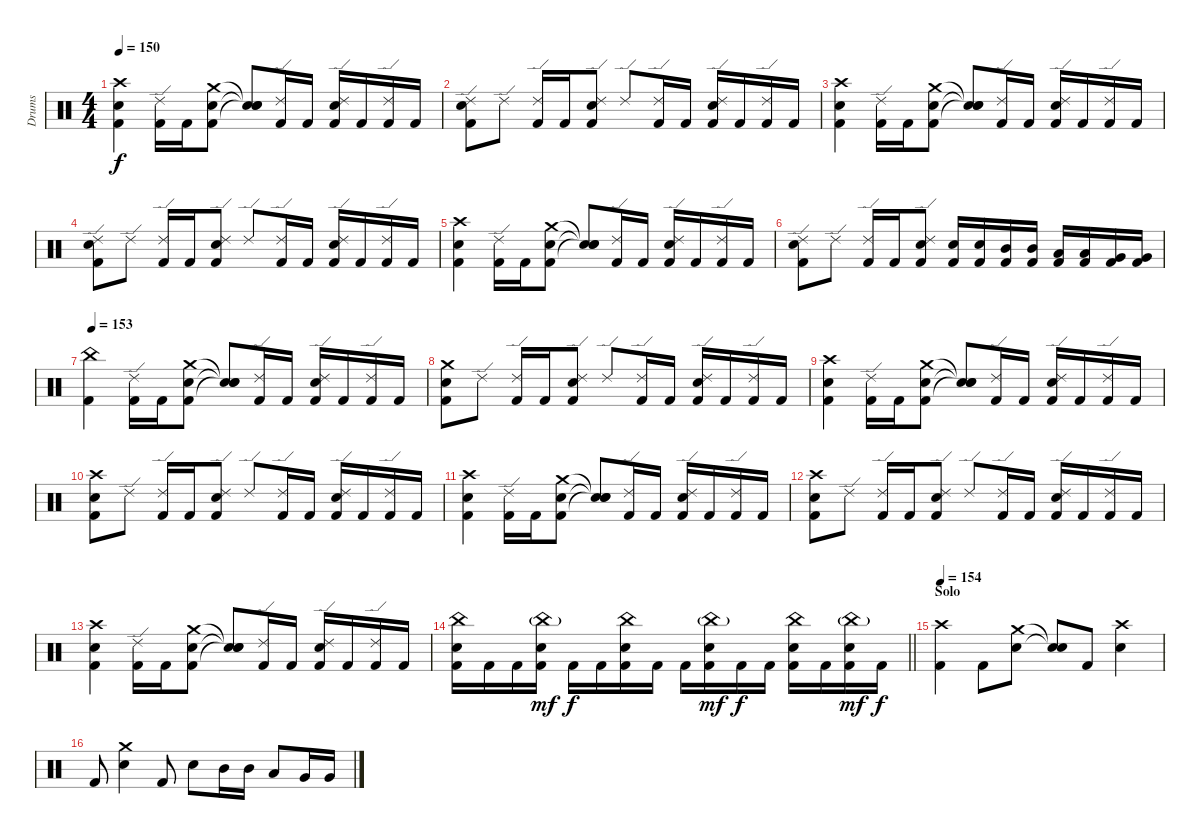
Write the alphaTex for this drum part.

\track ("Drums" "Drums") {instrument percussion}
\staff {score}
\articulation defaults
\ts (4 4)
\tempo 150
\clef neutral
\ks c
("Crash high (hit)" "Snare (hit) 2" "Kick (hit) 2").4{dy f} ("Ride (edge) 2" "Kick (hit) 2").16 "Kick (hit) 2".16 ("Crash medium (hit)" "Snare (hit) 2" "Kick (hit) 2").8 ("Snare (hit)"{t} "Snare (hit)"{t} "Snare (hit)"{t}).8 ("Ride (edge) 2" "Kick (hit) 2").16 "Kick (hit) 2".16 ("Ride (edge) 2" "Snare (hit) 2" "Kick (hit) 2").16 "Kick (hit) 2".16 ("Ride (edge) 2" "Kick (hit) 2").16 "Kick (hit) 2".16 |
("Ride (edge) 2" "Snare (hit) 2" "Kick (hit) 2").8 "Ride (edge) 2".8 ("Ride (edge) 2" "Kick (hit) 2").16 "Kick (hit) 2".16 ("Ride (edge) 2" "Snare (hit) 2" "Kick (hit) 2").8 "Ride (edge) 2".8 ("Ride (edge) 2" "Kick (hit) 2").16 "Kick (hit) 2".16 ("Ride (edge) 2" "Snare (hit) 2" "Kick (hit) 2").16 "Kick (hit) 2".16 ("Ride (edge) 2" "Kick (hit) 2").16 "Kick (hit) 2".16 |
("Crash high (hit)" "Snare (hit) 2" "Kick (hit) 2").4 ("Ride (edge) 2" "Kick (hit) 2").16 "Kick (hit) 2".16 ("Crash medium (hit)" "Snare (hit) 2" "Kick (hit) 2").8 ("Snare (hit)"{t} "Snare (hit)"{t} "Snare (hit)"{t}).8 ("Ride (edge) 2" "Kick (hit) 2").16 "Kick (hit) 2".16 ("Ride (edge) 2" "Snare (hit) 2" "Kick (hit) 2").16 "Kick (hit) 2".16 ("Ride (edge) 2" "Kick (hit) 2").16 "Kick (hit) 2".16 |
("Ride (edge) 2" "Snare (hit) 2" "Kick (hit) 2").8 "Ride (edge) 2".8 ("Ride (edge) 2" "Kick (hit) 2").16 "Kick (hit) 2".16 ("Ride (edge) 2" "Snare (hit) 2" "Kick (hit) 2").8 "Ride (edge) 2".8 ("Ride (edge) 2" "Kick (hit) 2").16 "Kick (hit) 2".16 ("Ride (edge) 2" "Snare (hit) 2" "Kick (hit) 2").16 "Kick (hit) 2".16 ("Ride (edge) 2" "Kick (hit) 2").16 "Kick (hit) 2".16 |
("Crash high (hit)" "Snare (hit) 2" "Kick (hit) 2").4 ("Ride (edge) 2" "Kick (hit) 2").16 "Kick (hit) 2".16 ("Crash medium (hit)" "Snare (hit) 2" "Kick (hit) 2").8 ("Snare (hit)"{t} "Snare (hit)"{t} "Snare (hit)"{t}).8 ("Ride (edge) 2" "Kick (hit) 2").16 "Kick (hit) 2".16 ("Ride (edge) 2" "Snare (hit) 2" "Kick (hit) 2").16 "Kick (hit) 2".16 ("Ride (edge) 2" "Kick (hit) 2").16 "Kick (hit) 2".16 |
("Ride (edge) 2" "Snare (hit) 2" "Kick (hit) 2").8 "Ride (edge) 2".8 ("Ride (edge) 2" "Kick (hit) 2").16 "Kick (hit) 2".16 ("Ride (edge) 2" "Snare (hit) 2" "Kick (hit) 2").8 ("Snare (hit) 2" "Kick (hit) 2").16 ("Snare (hit) 2" "Kick (hit) 2").16 ("Mid Tom (hit)" "Kick (hit) 2").16 ("Mid Tom (hit)" "Kick (hit) 2").16 ("Low Tom (hit)" "Kick (hit) 2").16 ("Low Tom (hit)" "Kick (hit) 2").16 ("Very Low Tom (hit)" "Kick (hit) 2").16 ("Very Low Tom (hit)" "Kick (hit) 2").16 |
\tempo 153
("China (hit)" "Kick (hit) 2").4 ("Ride (edge) 2" "Kick (hit) 2").16 "Kick (hit) 2".16 ("Crash medium (hit)" "Snare (hit) 2" "Kick (hit) 2").8 ("Snare (hit)"{t} "Snare (hit)"{t} "Snare (hit)"{t}).8 ("Ride (edge) 2" "Kick (hit) 2").16 "Kick (hit) 2".16 ("Ride (edge) 2" "Snare (hit) 2" "Kick (hit) 2").16 "Kick (hit) 2".16 ("Ride (edge) 2" "Kick (hit) 2").16 "Kick (hit) 2".16 |
("Crash medium (hit)" "Snare (hit) 2" "Kick (hit) 2").8 "Ride (edge) 2".8 ("Ride (edge) 2" "Kick (hit) 2").16 "Kick (hit) 2".16 ("Ride (edge) 2" "Snare (hit) 2" "Kick (hit) 2").8 "Ride (edge) 2".8 ("Ride (edge) 2" "Kick (hit) 2").16 "Kick (hit) 2".16 ("Ride (edge) 2" "Snare (hit) 2" "Kick (hit) 2").16 "Kick (hit) 2".16 ("Ride (edge) 2" "Kick (hit) 2").16 "Kick (hit) 2".16 |
("Crash high (hit)" "Snare (hit) 2" "Kick (hit) 2").4 ("Ride (edge) 2" "Kick (hit) 2").16 "Kick (hit) 2".16 ("Crash medium (hit)" "Snare (hit) 2" "Kick (hit) 2").8 ("Snare (hit)"{t} "Snare (hit)"{t} "Snare (hit)"{t}).8 ("Ride (edge) 2" "Kick (hit) 2").16 "Kick (hit) 2".16 ("Ride (edge) 2" "Snare (hit) 2" "Kick (hit) 2").16 "Kick (hit) 2".16 ("Ride (edge) 2" "Kick (hit) 2").16 "Kick (hit) 2".16 |
("Crash high (hit)" "Snare (hit) 2" "Kick (hit) 2").8 "Ride (edge) 2".8 ("Ride (edge) 2" "Kick (hit) 2").16 "Kick (hit) 2".16 ("Ride (edge) 2" "Snare (hit) 2" "Kick (hit) 2").8 "Ride (edge) 2".8 ("Ride (edge) 2" "Kick (hit) 2").16 "Kick (hit) 2".16 ("Ride (edge) 2" "Snare (hit) 2" "Kick (hit) 2").16 "Kick (hit) 2".16 ("Ride (edge) 2" "Kick (hit) 2").16 "Kick (hit) 2".16 |
("Crash high (hit)" "Snare (hit) 2" "Kick (hit) 2").4 ("Ride (edge) 2" "Kick (hit) 2").16 "Kick (hit) 2".16 ("Crash medium (hit)" "Snare (hit) 2" "Kick (hit) 2").8 ("Snare (hit)"{t} "Snare (hit)"{t} "Snare (hit)"{t}).8 ("Ride (edge) 2" "Kick (hit) 2").16 "Kick (hit) 2".16 ("Ride (edge) 2" "Snare (hit) 2" "Kick (hit) 2").16 "Kick (hit) 2".16 ("Ride (edge) 2" "Kick (hit) 2").16 "Kick (hit) 2".16 |
("Crash high (hit)" "Snare (hit) 2" "Kick (hit) 2").8 "Ride (edge) 2".8 ("Ride (edge) 2" "Kick (hit) 2").16 "Kick (hit) 2".16 ("Ride (edge) 2" "Snare (hit) 2" "Kick (hit) 2").8 "Ride (edge) 2".8 ("Ride (edge) 2" "Kick (hit) 2").16 "Kick (hit) 2".16 ("Ride (edge) 2" "Snare (hit) 2" "Kick (hit) 2").16 "Kick (hit) 2".16 ("Ride (edge) 2" "Kick (hit) 2").16 "Kick (hit) 2".16 |
("Crash high (hit)" "Snare (hit) 2" "Kick (hit) 2").4 ("Ride (edge) 2" "Kick (hit) 2").16 "Kick (hit) 2".16 ("Crash medium (hit)" "Snare (hit) 2" "Kick (hit) 2").8 ("Snare (hit)"{t} "Snare (hit)"{t} "Snare (hit)"{t}).8 ("Ride (edge) 2" "Kick (hit) 2").16 "Kick (hit) 2".16 ("Ride (edge) 2" "Snare (hit) 2" "Kick (hit) 2").16 "Kick (hit) 2".16 ("Ride (edge) 2" "Kick (hit) 2").16 "Kick (hit) 2".16 |
\barLineRight lightlight
("China (hit)" "Snare (hit) 2" "Kick (hit) 2").16 "Kick (hit) 2".16 "Kick (hit) 2".16 ("China (hit)"{g} "Snare (hit) 2" "Kick (hit) 2").16{dy mf} "Kick (hit) 2".16{dy f} "Kick (hit) 2".16 ("China (hit)" "Snare (hit) 2" "Kick (hit) 2").16 "Kick (hit) 2".16 "Kick (hit) 2".16 ("China (hit)"{g} "Snare (hit) 2" "Kick (hit) 2").16{dy mf} "Kick (hit) 2".16{dy f} "Kick (hit) 2".16 ("China (hit)" "Snare (hit) 2" "Kick (hit) 2").16 "Kick (hit) 2".16 ("China (hit)"{g} "Snare (hit) 2" "Kick (hit) 2").16{dy mf} "Kick (hit) 2".16{dy f} |
\section ("" "Solo")
\tempo 154
("Crash high (hit)" "Kick (hit) 2").4 "Kick (hit) 2".8 ("Crash medium (hit)" "Snare (hit) 2").8 ("Snare (hit)"{t} "Snare (hit)"{t}).8 "Kick (hit) 2".8 ("Crash high (hit)" "Snare (hit) 2").4 |
"Kick (hit) 2".8 ("Crash medium (hit)" "Snare (hit) 2").4 "Kick (hit) 2".8 "Snare (hit) 2".8 "Mid Tom (hit)".16 "Mid Tom (hit)".16 "Low Tom (hit)".8 "Very Low Tom (hit)".16 "Very Low Tom (hit)".16
